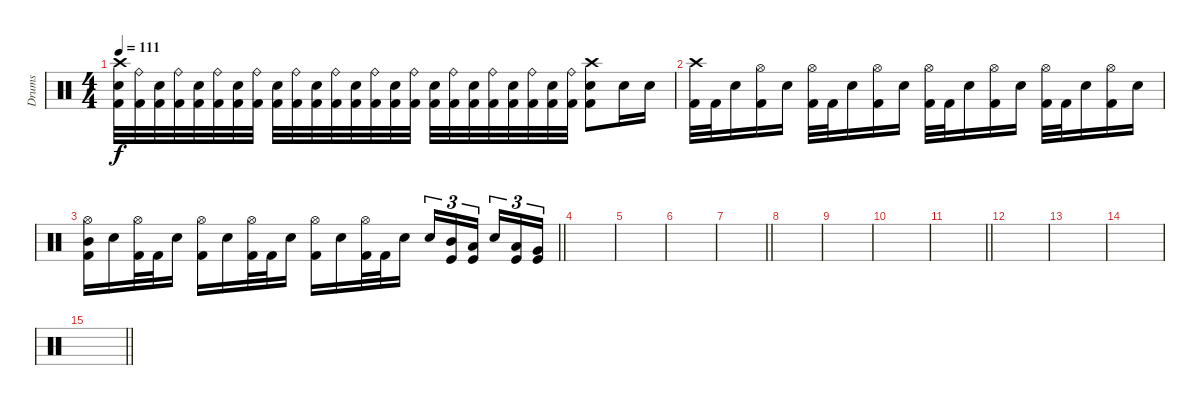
\track ("Drums" "Drums") {instrument percussion}
\staff
\articulation defaults
\ts (4 4)
\tempo 111
\clef neutral
\ks c
("Crash high (hit)" "Electric Snare (hit)" "Kick (hit) 2").32{dy f} ("Ride (bell)" "Kick (hit) 2").32 ("Electric Snare (hit)" "Kick (hit) 2").32 ("Ride (bell)" "Kick (hit) 2").32 ("Electric Snare (hit)" "Kick (hit) 2").32 ("Ride (bell)" "Kick (hit) 2").32 ("Electric Snare (hit)" "Kick (hit) 2").32 ("Ride (bell)" "Kick (hit) 2").32 ("Electric Snare (hit)" "Kick (hit) 2").32 ("Ride (bell)" "Kick (hit) 2").32 ("Electric Snare (hit)" "Kick (hit) 2").32 ("Ride (bell)" "Kick (hit) 2").32 ("Electric Snare (hit)" "Kick (hit) 2").32 ("Ride (bell)" "Kick (hit) 2").32 ("Electric Snare (hit)" "Kick (hit) 2").32 ("Ride (bell)" "Kick (hit) 2").32 ("Electric Snare (hit)" "Kick (hit) 2").32 ("Ride (bell)" "Kick (hit) 2").32 ("Electric Snare (hit)" "Kick (hit) 2").32 ("Ride (bell)" "Kick (hit) 2").32 ("Electric Snare (hit)" "Kick (hit) 2").32 ("Ride (bell)" "Kick (hit) 2").32 ("Electric Snare (hit)" "Kick (hit) 2").32 ("Ride (bell)" "Kick (hit) 2").32 ("Crash high (hit)" "Electric Snare (hit)" "Kick (hit) 2").8 "Electric Snare (hit)".16 "Electric Snare (hit)".16 |
("Crash high (hit)" "Kick (hit) 2").32 "Kick (hit) 2".32 "Electric Snare (hit)".16 ("Hi-Hat (open)" "Kick (hit) 2").16 "Electric Snare (hit)".16 ("Hi-Hat (open)" "Kick (hit) 2").32 "Kick (hit) 2".32 "Electric Snare (hit)".16 ("Hi-Hat (open)" "Kick (hit) 2").16 "Electric Snare (hit)".16 ("Hi-Hat (open)" "Kick (hit) 2").32 "Kick (hit) 2".32 "Electric Snare (hit)".16 ("Hi-Hat (open)" "Kick (hit) 2").16 "Electric Snare (hit)".16 ("Hi-Hat (open)" "Kick (hit) 2").32 "Kick (hit) 2".32 "Electric Snare (hit)".16 ("Hi-Hat (open)" "Kick (hit) 2").16 "Electric Snare (hit)".16 |
\barLineRight lightlight
("Hi-Hat (open)" "Mid Tom (hit)" "Kick (hit) 2").16 "Electric Snare (hit)".16 ("Hi-Hat (open)" "Kick (hit) 2").32 "Kick (hit) 2".32 "Electric Snare (hit)".16 ("Hi-Hat (open)" "Kick (hit) 2").16 "Electric Snare (hit)".16 ("Hi-Hat (open)" "Kick (hit) 2").32 "Kick (hit) 2".32 "Electric Snare (hit)".16 ("Hi-Hat (open)" "Kick (hit) 2").16 "Electric Snare (hit)".16 ("Hi-Hat (open)" "Kick (hit) 2").32 "Kick (hit) 2".32 "Electric Snare (hit)".16 "Electric Snare (hit)".16{tu (3 2)} ("Mid Tom (hit)" "Kick (hit)").16{tu (3 2)} ("Low Tom (hit)" "Kick (hit)").16{tu (3 2) beam splitsecondary} "Electric Snare (hit)".16{tu (3 2)} ("Low Tom (hit)" "Kick (hit)").16{tu (3 2)} ("Very Low Tom (hit)" "Kick (hit)").16{tu (3 2)} |
\section ("" "")
|
|
|
\barLineRight lightlight
|
|
|
|
\barLineRight lightlight
|
|
|
|
\barLineRight lightlight
